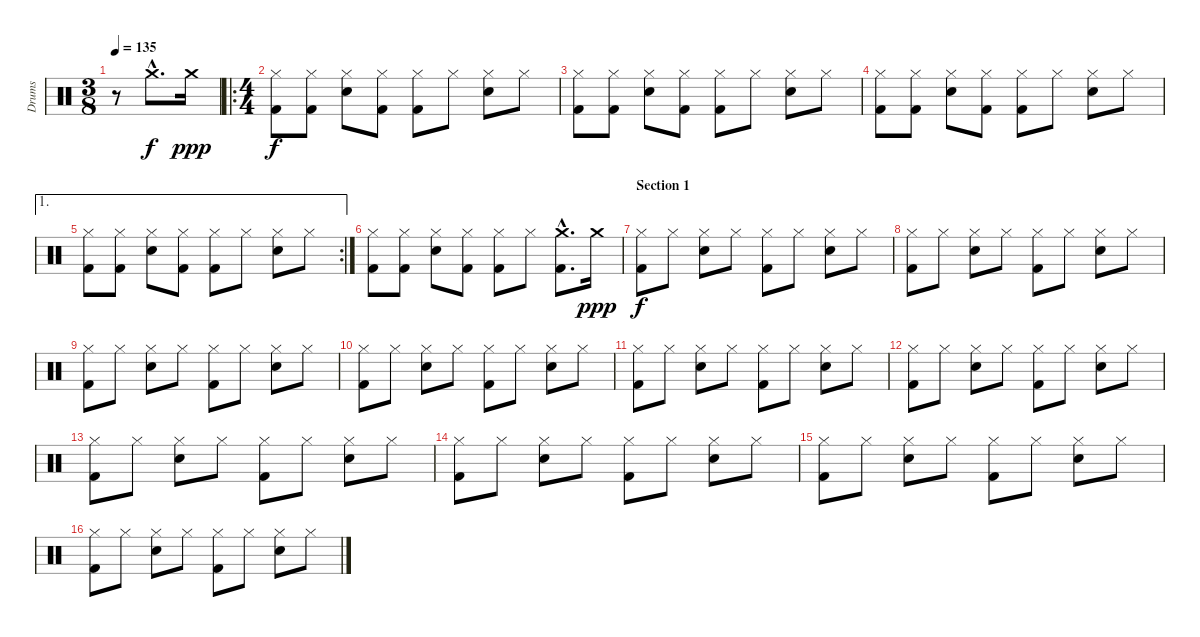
\track ("Drums" "Drums") {instrument percussion}
\staff {score}
\articulation defaults
\ts (3 8)
\tempo 135
\clef neutral
\ks c
r.8{dy f} "Crash medium (hit)"{hac}.8{d} "Crash medium (hit)".16{dy ppp} |
\ro
\ts (4 4)
("Hi-Hat (closed)" "Kick (hit) 2").8{dy f} ("Hi-Hat (closed)" "Kick (hit) 2").8 ("Hi-Hat (closed)" "Electric Snare (hit)").8 ("Hi-Hat (closed)" "Kick (hit) 2").8 ("Hi-Hat (closed)" "Kick (hit) 2").8 "Hi-Hat (closed)".8 ("Hi-Hat (closed)" "Electric Snare (hit)").8 "Hi-Hat (closed)".8 |
("Hi-Hat (closed)" "Kick (hit) 2").8 ("Hi-Hat (closed)" "Kick (hit) 2").8 ("Hi-Hat (closed)" "Electric Snare (hit)").8 ("Hi-Hat (closed)" "Kick (hit) 2").8 ("Hi-Hat (closed)" "Kick (hit) 2").8 "Hi-Hat (closed)".8 ("Hi-Hat (closed)" "Electric Snare (hit)").8 "Hi-Hat (closed)".8 |
("Hi-Hat (closed)" "Kick (hit) 2").8 ("Hi-Hat (closed)" "Kick (hit) 2").8 ("Hi-Hat (closed)" "Electric Snare (hit)").8 ("Hi-Hat (closed)" "Kick (hit) 2").8 ("Hi-Hat (closed)" "Kick (hit) 2").8 "Hi-Hat (closed)".8 ("Hi-Hat (closed)" "Electric Snare (hit)").8 "Hi-Hat (closed)".8 |
\ae 1
\rc 2
("Hi-Hat (closed)" "Kick (hit) 2").8 ("Hi-Hat (closed)" "Kick (hit) 2").8 ("Hi-Hat (closed)" "Electric Snare (hit)").8 ("Hi-Hat (closed)" "Kick (hit) 2").8 ("Hi-Hat (closed)" "Kick (hit) 2").8 "Hi-Hat (closed)".8 ("Hi-Hat (closed)" "Electric Snare (hit)").8 "Hi-Hat (closed)".8 |
("Hi-Hat (closed)" "Kick (hit) 2").8 ("Hi-Hat (closed)" "Kick (hit) 2").8 ("Hi-Hat (closed)" "Electric Snare (hit)").8 ("Hi-Hat (closed)" "Kick (hit) 2").8 ("Hi-Hat (closed)" "Kick (hit) 2").8 "Hi-Hat (closed)".8 ("Crash medium (hit)"{hac} "Kick (hit) 2"{hac}).8{d} "Crash medium (hit)".16{dy ppp} |
\section ("" "Section 1")
("Hi-Hat (closed)" "Kick (hit) 2").8{dy f} "Hi-Hat (closed)".8 ("Hi-Hat (closed)" "Electric Snare (hit)").8 "Hi-Hat (closed)".8 ("Hi-Hat (closed)" "Kick (hit) 2").8 "Hi-Hat (closed)".8 ("Hi-Hat (closed)" "Electric Snare (hit)").8 "Hi-Hat (closed)".8 |
("Hi-Hat (closed)" "Kick (hit) 2").8 "Hi-Hat (closed)".8 ("Hi-Hat (closed)" "Electric Snare (hit)").8 "Hi-Hat (closed)".8 ("Hi-Hat (closed)" "Kick (hit) 2").8 "Hi-Hat (closed)".8 ("Hi-Hat (closed)" "Electric Snare (hit)").8 "Hi-Hat (closed)".8 |
("Hi-Hat (closed)" "Kick (hit) 2").8 "Hi-Hat (closed)".8 ("Hi-Hat (closed)" "Electric Snare (hit)").8 "Hi-Hat (closed)".8 ("Hi-Hat (closed)" "Kick (hit) 2").8 "Hi-Hat (closed)".8 ("Hi-Hat (closed)" "Electric Snare (hit)").8 "Hi-Hat (closed)".8 |
("Hi-Hat (closed)" "Kick (hit) 2").8 "Hi-Hat (closed)".8 ("Hi-Hat (closed)" "Electric Snare (hit)").8 "Hi-Hat (closed)".8 ("Hi-Hat (closed)" "Kick (hit) 2").8 "Hi-Hat (closed)".8 ("Hi-Hat (closed)" "Electric Snare (hit)").8 "Hi-Hat (closed)".8 |
("Hi-Hat (closed)" "Kick (hit) 2").8 "Hi-Hat (closed)".8 ("Hi-Hat (closed)" "Electric Snare (hit)").8 "Hi-Hat (closed)".8 ("Hi-Hat (closed)" "Kick (hit) 2").8 "Hi-Hat (closed)".8 ("Hi-Hat (closed)" "Electric Snare (hit)").8 "Hi-Hat (closed)".8 |
("Hi-Hat (closed)" "Kick (hit) 2").8 "Hi-Hat (closed)".8 ("Hi-Hat (closed)" "Electric Snare (hit)").8 "Hi-Hat (closed)".8 ("Hi-Hat (closed)" "Kick (hit) 2").8 "Hi-Hat (closed)".8 ("Hi-Hat (closed)" "Electric Snare (hit)").8 "Hi-Hat (closed)".8 |
("Hi-Hat (closed)" "Kick (hit) 2").8 "Hi-Hat (closed)".8 ("Hi-Hat (closed)" "Electric Snare (hit)").8 "Hi-Hat (closed)".8 ("Hi-Hat (closed)" "Kick (hit) 2").8 "Hi-Hat (closed)".8 ("Hi-Hat (closed)" "Electric Snare (hit)").8 "Hi-Hat (closed)".8 |
("Hi-Hat (closed)" "Kick (hit) 2").8 "Hi-Hat (closed)".8 ("Hi-Hat (closed)" "Electric Snare (hit)").8 "Hi-Hat (closed)".8 ("Hi-Hat (closed)" "Kick (hit) 2").8 "Hi-Hat (closed)".8 ("Hi-Hat (closed)" "Electric Snare (hit)").8 "Hi-Hat (closed)".8 |
("Hi-Hat (closed)" "Kick (hit) 2").8 "Hi-Hat (closed)".8 ("Hi-Hat (closed)" "Electric Snare (hit)").8 "Hi-Hat (closed)".8 ("Hi-Hat (closed)" "Kick (hit) 2").8 "Hi-Hat (closed)".8 ("Hi-Hat (closed)" "Electric Snare (hit)").8 "Hi-Hat (closed)".8 |
("Hi-Hat (closed)" "Kick (hit) 2").8 "Hi-Hat (closed)".8 ("Hi-Hat (closed)" "Electric Snare (hit)").8 "Hi-Hat (closed)".8 ("Hi-Hat (closed)" "Kick (hit) 2").8 "Hi-Hat (closed)".8 ("Hi-Hat (closed)" "Electric Snare (hit)").8 "Hi-Hat (closed)".8
